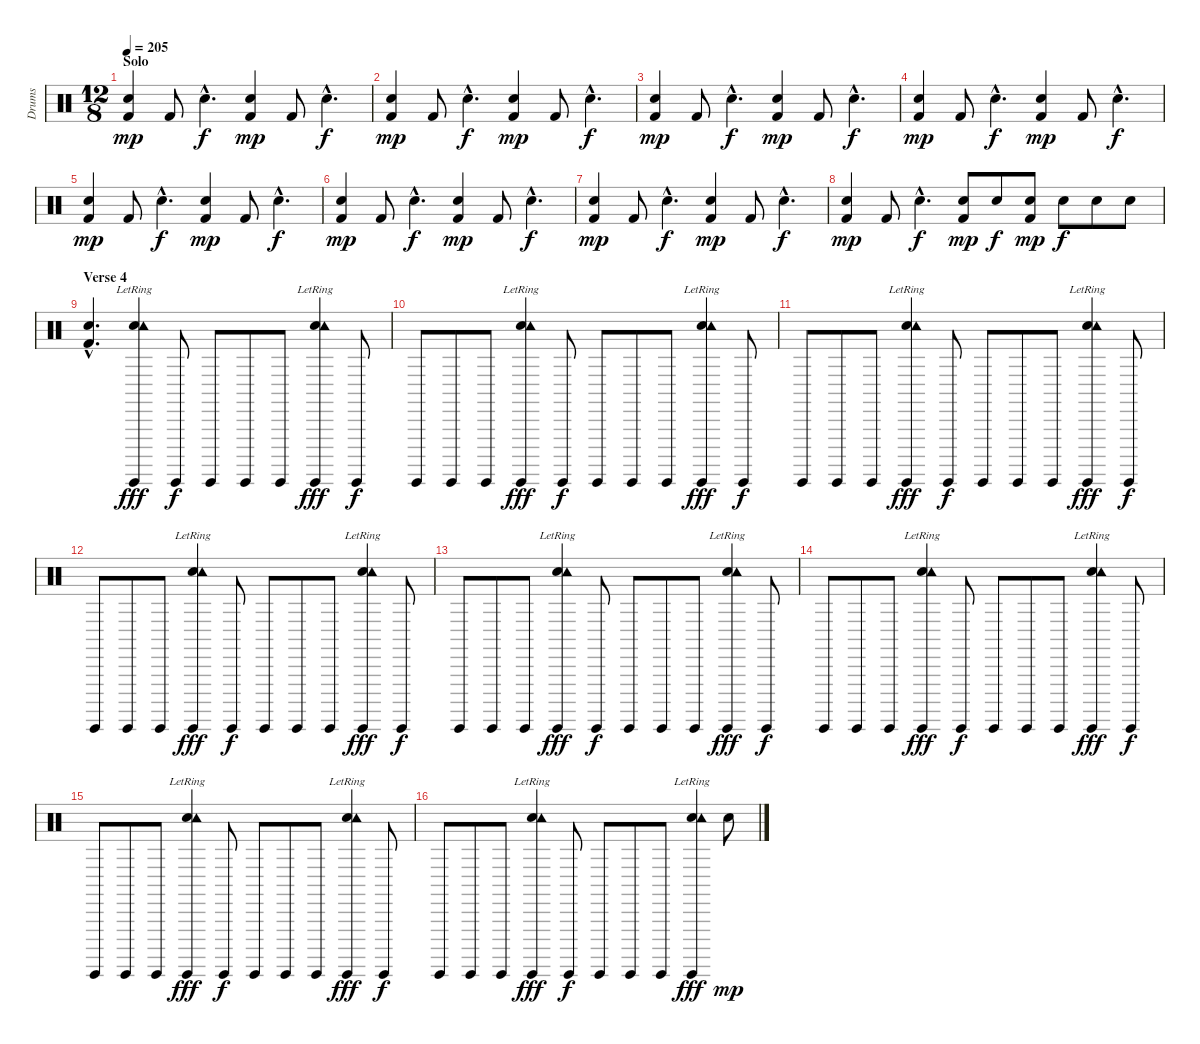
\track ("Drums" "Drums") {instrument percussion}
\staff {score}
\articulation defaults
\ts (12 8)
\section ("" "Solo")
\tempo 205
\clef neutral
\ks c
("Snare (hit) 2" "Kick (hit) 2").4{dy mp volume 10} "Kick (hit) 2".8 "Snare (hit) 2"{hac}.4{d dy f} ("Snare (hit) 2" "Kick (hit) 2").4{dy mp} "Kick (hit) 2".8 "Snare (hit) 2"{hac}.4{d dy f} |
("Snare (hit) 2" "Kick (hit) 2").4{dy mp} "Kick (hit) 2".8 "Snare (hit) 2"{hac}.4{d dy f} ("Snare (hit) 2" "Kick (hit) 2").4{dy mp} "Kick (hit) 2".8 "Snare (hit) 2"{hac}.4{d dy f} |
("Snare (hit) 2" "Kick (hit) 2").4{dy mp volume 10} "Kick (hit) 2".8 "Snare (hit) 2"{hac}.4{d dy f} ("Snare (hit) 2" "Kick (hit) 2").4{dy mp} "Kick (hit) 2".8 "Snare (hit) 2"{hac}.4{d dy f} |
("Snare (hit) 2" "Kick (hit) 2").4{dy mp} "Kick (hit) 2".8 "Snare (hit) 2"{hac}.4{d dy f} ("Snare (hit) 2" "Kick (hit) 2").4{dy mp} "Kick (hit) 2".8 "Snare (hit) 2"{hac}.4{d dy f} |
("Snare (hit) 2" "Kick (hit) 2").4{dy mp volume 10} "Kick (hit) 2".8 "Snare (hit) 2"{hac}.4{d dy f} ("Snare (hit) 2" "Kick (hit) 2").4{dy mp} "Kick (hit) 2".8 "Snare (hit) 2"{hac}.4{d dy f} |
("Snare (hit) 2" "Kick (hit) 2").4{dy mp} "Kick (hit) 2".8 "Snare (hit) 2"{hac}.4{d dy f} ("Snare (hit) 2" "Kick (hit) 2").4{dy mp} "Kick (hit) 2".8 "Snare (hit) 2"{hac}.4{d dy f} |
("Snare (hit) 2" "Kick (hit) 2").4{dy mp volume 10} "Kick (hit) 2".8 "Snare (hit) 2"{hac}.4{d dy f} ("Snare (hit) 2" "Kick (hit) 2").4{dy mp} "Kick (hit) 2".8 "Snare (hit) 2"{hac}.4{d dy f} |
("Snare (hit) 2" "Kick (hit) 2").4{dy mp} "Kick (hit) 2".8 "Snare (hit) 2"{hac}.4{d dy f} ("Snare (hit) 2" "Kick (hit) 2").8{dy mp} "Snare (hit) 2".8{dy f} ("Snare (hit) 2" "Kick (hit) 2").8{dy mp} "Snare (hit) 2".8{dy f} "Snare (hit) 2".8 "Snare (hit) 2".8 |
\section ("" "Verse 4")
("Snare (hit) 2"{hac} "Kick (hit) 2"{hac}).4{d} ("Hand Clap (hit)"{lr} "Tambourine (hit)"{lr} "Guiro (hit)").4{dy fff} "Guiro (hit)".8{dy f} "Guiro (hit)".8 "Guiro (hit)".8 "Guiro (hit)".8 ("Hand Clap (hit)"{lr} "Tambourine (hit)"{lr} "Guiro (hit)").4{dy fff} "Guiro (hit)".8{dy f} |
"Guiro (hit)".8 "Guiro (hit)".8 "Guiro (hit)".8 ("Hand Clap (hit)"{lr} "Tambourine (hit)"{lr} "Guiro (hit)").4{dy fff} "Guiro (hit)".8{dy f} "Guiro (hit)".8 "Guiro (hit)".8 "Guiro (hit)".8 ("Hand Clap (hit)"{lr} "Tambourine (hit)"{lr} "Guiro (hit)").4{dy fff} "Guiro (hit)".8{dy f} |
"Guiro (hit)".8 "Guiro (hit)".8 "Guiro (hit)".8 ("Hand Clap (hit)"{lr} "Tambourine (hit)"{lr} "Guiro (hit)").4{dy fff} "Guiro (hit)".8{dy f} "Guiro (hit)".8 "Guiro (hit)".8 "Guiro (hit)".8 ("Hand Clap (hit)"{lr} "Tambourine (hit)"{lr} "Guiro (hit)").4{dy fff} "Guiro (hit)".8{dy f} |
"Guiro (hit)".8 "Guiro (hit)".8 "Guiro (hit)".8 ("Hand Clap (hit)"{lr} "Tambourine (hit)"{lr} "Guiro (hit)").4{dy fff} "Guiro (hit)".8{dy f} "Guiro (hit)".8 "Guiro (hit)".8 "Guiro (hit)".8 ("Hand Clap (hit)"{lr} "Tambourine (hit)"{lr} "Guiro (hit)").4{dy fff} "Guiro (hit)".8{dy f} |
"Guiro (hit)".8 "Guiro (hit)".8 "Guiro (hit)".8 ("Hand Clap (hit)"{lr} "Tambourine (hit)"{lr} "Guiro (hit)").4{dy fff} "Guiro (hit)".8{dy f} "Guiro (hit)".8 "Guiro (hit)".8 "Guiro (hit)".8 ("Hand Clap (hit)"{lr} "Tambourine (hit)"{lr} "Guiro (hit)").4{dy fff} "Guiro (hit)".8{dy f} |
"Guiro (hit)".8 "Guiro (hit)".8 "Guiro (hit)".8 ("Hand Clap (hit)"{lr} "Tambourine (hit)"{lr} "Guiro (hit)").4{dy fff} "Guiro (hit)".8{dy f} "Guiro (hit)".8 "Guiro (hit)".8 "Guiro (hit)".8 ("Hand Clap (hit)"{lr} "Tambourine (hit)"{lr} "Guiro (hit)").4{dy fff} "Guiro (hit)".8{dy f} |
"Guiro (hit)".8 "Guiro (hit)".8 "Guiro (hit)".8 ("Hand Clap (hit)"{lr} "Tambourine (hit)"{lr} "Guiro (hit)").4{dy fff} "Guiro (hit)".8{dy f} "Guiro (hit)".8 "Guiro (hit)".8 "Guiro (hit)".8 ("Hand Clap (hit)"{lr} "Tambourine (hit)"{lr} "Guiro (hit)").4{dy fff} "Guiro (hit)".8{dy f} |
"Guiro (hit)".8 "Guiro (hit)".8 "Guiro (hit)".8 ("Hand Clap (hit)"{lr} "Tambourine (hit)"{lr} "Guiro (hit)").4{dy fff} "Guiro (hit)".8{dy f} "Guiro (hit)".8 "Guiro (hit)".8 "Guiro (hit)".8 ("Hand Clap (hit)"{lr} "Tambourine (hit)"{lr} "Guiro (hit)").4{dy fff} "Snare (hit) 2".8{dy mp}
